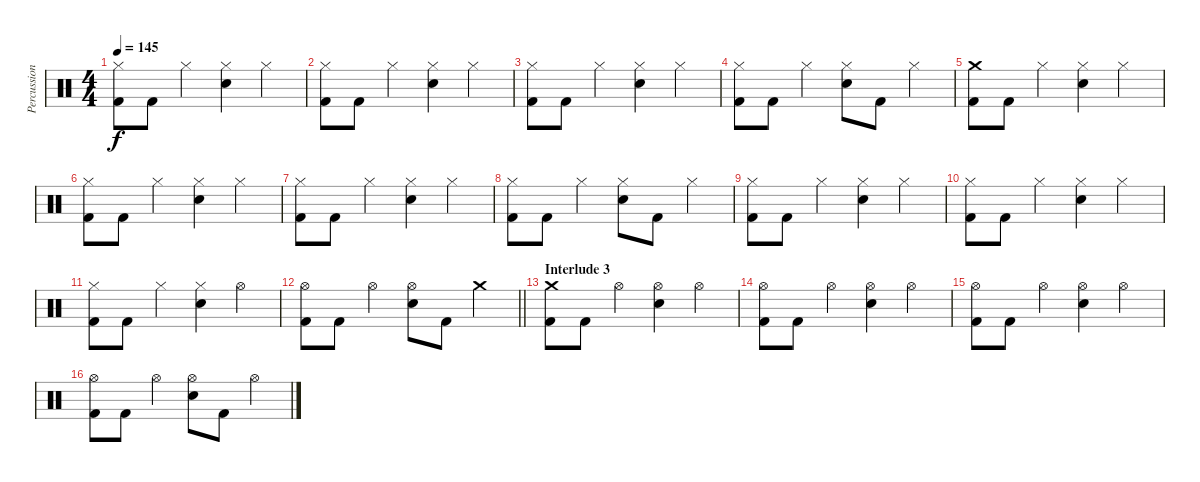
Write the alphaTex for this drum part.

\track ("Percussion" "Percussion") {instrument percussion}
\staff {score}
\articulation defaults
\ts (4 4)
\tempo 145
\clef neutral
\ks c
("Hi-Hat (closed)" "Kick (hit) 2").8{dy f} "Kick (hit) 2".8 "Hi-Hat (closed)".4 ("Hi-Hat (closed)" "Electric Snare (hit)").4 "Hi-Hat (closed)".4 |
("Hi-Hat (closed)" "Kick (hit) 2").8 "Kick (hit) 2".8 "Hi-Hat (closed)".4 ("Hi-Hat (closed)" "Electric Snare (hit)").4 "Hi-Hat (closed)".4 |
("Hi-Hat (closed)" "Kick (hit) 2").8 "Kick (hit) 2".8 "Hi-Hat (closed)".4 ("Hi-Hat (closed)" "Electric Snare (hit)").4 "Hi-Hat (closed)".4 |
("Hi-Hat (closed)" "Kick (hit) 2").8 "Kick (hit) 2".8 "Hi-Hat (closed)".4 ("Hi-Hat (closed)" "Electric Snare (hit)").8 "Kick (hit) 2".8 "Hi-Hat (closed)".4 |
("Crash medium (hit)" "Kick (hit) 2").8 "Kick (hit) 2".8 "Hi-Hat (closed)".4 ("Hi-Hat (closed)" "Electric Snare (hit)").4 "Hi-Hat (closed)".4 |
("Hi-Hat (closed)" "Kick (hit) 2").8 "Kick (hit) 2".8 "Hi-Hat (closed)".4 ("Hi-Hat (closed)" "Electric Snare (hit)").4 "Hi-Hat (closed)".4 |
("Hi-Hat (closed)" "Kick (hit) 2").8 "Kick (hit) 2".8 "Hi-Hat (closed)".4 ("Hi-Hat (closed)" "Electric Snare (hit)").4 "Hi-Hat (closed)".4 |
("Hi-Hat (closed)" "Kick (hit) 2").8 "Kick (hit) 2".8 "Hi-Hat (closed)".4 ("Hi-Hat (closed)" "Electric Snare (hit)").8 "Kick (hit) 2".8 "Hi-Hat (closed)".4 |
("Hi-Hat (closed)" "Kick (hit) 2").8 "Kick (hit) 2".8 "Hi-Hat (closed)".4 ("Hi-Hat (closed)" "Electric Snare (hit)").4 "Hi-Hat (closed)".4 |
("Hi-Hat (closed)" "Kick (hit) 2").8 "Kick (hit) 2".8 "Hi-Hat (closed)".4 ("Hi-Hat (closed)" "Electric Snare (hit)").4 "Hi-Hat (closed)".4 |
("Hi-Hat (closed)" "Kick (hit) 2").8 "Kick (hit) 2".8 "Hi-Hat (closed)".4 ("Hi-Hat (closed)" "Electric Snare (hit)").4 "Hi-Hat (open)".4 |
\barLineRight lightlight
("Hi-Hat (open)" "Kick (hit) 2").8 "Kick (hit) 2".8 "Hi-Hat (open)".4 ("Hi-Hat (open)" "Electric Snare (hit)").8 "Kick (hit) 2".8 "Crash medium (hit)".4 |
\section ("" "Interlude 3")
("Crash medium (hit)" "Kick (hit) 2").8 "Kick (hit) 2".8 "Hi-Hat (open)".4 ("Hi-Hat (open)" "Electric Snare (hit)").4 "Hi-Hat (open)".4 |
("Hi-Hat (open)" "Kick (hit) 2").8 "Kick (hit) 2".8 "Hi-Hat (open)".4 ("Hi-Hat (open)" "Electric Snare (hit)").4 "Hi-Hat (open)".4 |
("Hi-Hat (open)" "Kick (hit) 2").8 "Kick (hit) 2".8 "Hi-Hat (open)".4 ("Hi-Hat (open)" "Electric Snare (hit)").4 "Hi-Hat (open)".4 |
("Hi-Hat (open)" "Kick (hit) 2").8 "Kick (hit) 2".8 "Hi-Hat (open)".4 ("Hi-Hat (open)" "Electric Snare (hit)").8 "Kick (hit) 2".8 "Hi-Hat (open)".4
